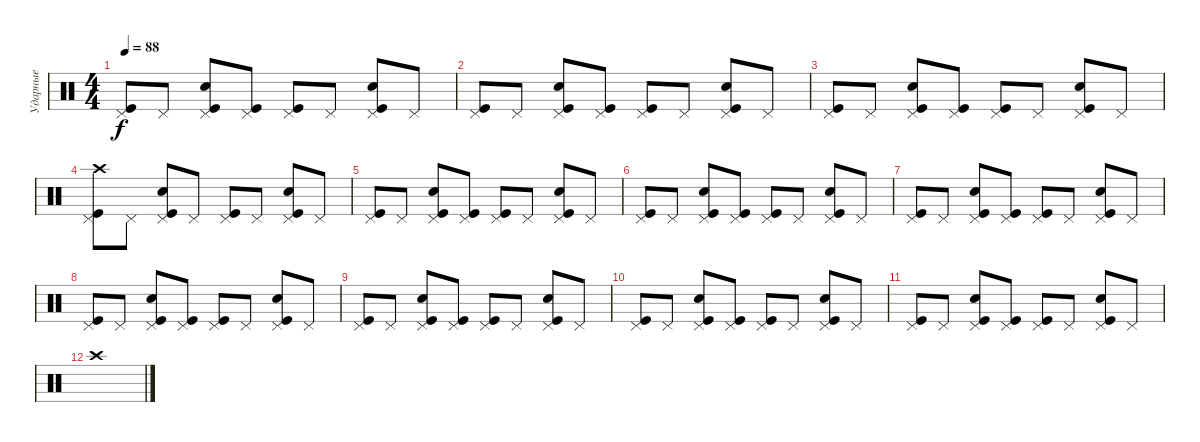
\track ("Ударные" "Ударные") {instrument percussion}
\staff {score}
\articulation defaults
\ts (4 4)
\tempo 88
\clef neutral
\ks c
("Pedal Hi-Hat (hit)" "Kick (hit)").8{dy f} "Pedal Hi-Hat (hit)".8 ("Pedal Hi-Hat (hit)" "Kick (hit)" "Snare (hit) 2").8 ("Pedal Hi-Hat (hit)" "Kick (hit)").8 ("Pedal Hi-Hat (hit)" "Kick (hit)").8 "Pedal Hi-Hat (hit)".8 ("Pedal Hi-Hat (hit)" "Kick (hit)" "Snare (hit) 2").8 "Pedal Hi-Hat (hit)".8 |
("Pedal Hi-Hat (hit)" "Kick (hit)").8 "Pedal Hi-Hat (hit)".8 ("Pedal Hi-Hat (hit)" "Kick (hit)" "Snare (hit) 2").8 ("Pedal Hi-Hat (hit)" "Kick (hit)").8 ("Pedal Hi-Hat (hit)" "Kick (hit)").8 "Pedal Hi-Hat (hit)".8 ("Pedal Hi-Hat (hit)" "Kick (hit)" "Snare (hit) 2").8 "Pedal Hi-Hat (hit)".8 |
("Pedal Hi-Hat (hit)" "Kick (hit)").8 "Pedal Hi-Hat (hit)".8 ("Pedal Hi-Hat (hit)" "Kick (hit)" "Snare (hit) 2").8 ("Pedal Hi-Hat (hit)" "Kick (hit)").8 ("Pedal Hi-Hat (hit)" "Kick (hit)").8 "Pedal Hi-Hat (hit)".8 ("Pedal Hi-Hat (hit)" "Kick (hit)" "Snare (hit) 2").8 "Pedal Hi-Hat (hit)".8 |
("Pedal Hi-Hat (hit)" "Kick (hit)" "Crash high (hit)").8 "Pedal Hi-Hat (hit)".8 ("Pedal Hi-Hat (hit)" "Kick (hit)" "Snare (hit) 2").8 "Pedal Hi-Hat (hit)".8 ("Pedal Hi-Hat (hit)" "Kick (hit)").8 "Pedal Hi-Hat (hit)".8 ("Pedal Hi-Hat (hit)" "Kick (hit)" "Snare (hit) 2").8 "Pedal Hi-Hat (hit)".8 |
("Pedal Hi-Hat (hit)" "Kick (hit)").8 "Pedal Hi-Hat (hit)".8 ("Pedal Hi-Hat (hit)" "Kick (hit)" "Snare (hit) 2").8 ("Pedal Hi-Hat (hit)" "Kick (hit)").8 ("Pedal Hi-Hat (hit)" "Kick (hit)").8 "Pedal Hi-Hat (hit)".8 ("Pedal Hi-Hat (hit)" "Kick (hit)" "Snare (hit) 2").8 "Pedal Hi-Hat (hit)".8 |
("Pedal Hi-Hat (hit)" "Kick (hit)").8 "Pedal Hi-Hat (hit)".8 ("Pedal Hi-Hat (hit)" "Kick (hit)" "Snare (hit) 2").8 ("Pedal Hi-Hat (hit)" "Kick (hit)").8 ("Pedal Hi-Hat (hit)" "Kick (hit)").8 "Pedal Hi-Hat (hit)".8 ("Pedal Hi-Hat (hit)" "Kick (hit)" "Snare (hit) 2").8 "Pedal Hi-Hat (hit)".8 |
("Pedal Hi-Hat (hit)" "Kick (hit)").8 "Pedal Hi-Hat (hit)".8 ("Pedal Hi-Hat (hit)" "Kick (hit)" "Snare (hit) 2").8 ("Pedal Hi-Hat (hit)" "Kick (hit)").8 ("Pedal Hi-Hat (hit)" "Kick (hit)").8 "Pedal Hi-Hat (hit)".8 ("Pedal Hi-Hat (hit)" "Kick (hit)" "Snare (hit) 2").8 "Pedal Hi-Hat (hit)".8 |
("Pedal Hi-Hat (hit)" "Kick (hit)").8 "Pedal Hi-Hat (hit)".8 ("Pedal Hi-Hat (hit)" "Kick (hit)" "Snare (hit) 2").8 ("Pedal Hi-Hat (hit)" "Kick (hit)").8 ("Pedal Hi-Hat (hit)" "Kick (hit)").8 "Pedal Hi-Hat (hit)".8 ("Pedal Hi-Hat (hit)" "Kick (hit)" "Snare (hit) 2").8 "Pedal Hi-Hat (hit)".8 |
("Pedal Hi-Hat (hit)" "Kick (hit)").8 "Pedal Hi-Hat (hit)".8 ("Pedal Hi-Hat (hit)" "Kick (hit)" "Snare (hit) 2").8 ("Pedal Hi-Hat (hit)" "Kick (hit)").8 ("Pedal Hi-Hat (hit)" "Kick (hit)").8 "Pedal Hi-Hat (hit)".8 ("Pedal Hi-Hat (hit)" "Kick (hit)" "Snare (hit) 2").8 "Pedal Hi-Hat (hit)".8 |
("Pedal Hi-Hat (hit)" "Kick (hit)").8 "Pedal Hi-Hat (hit)".8 ("Pedal Hi-Hat (hit)" "Kick (hit)" "Snare (hit) 2").8 ("Pedal Hi-Hat (hit)" "Kick (hit)").8 ("Pedal Hi-Hat (hit)" "Kick (hit)").8 "Pedal Hi-Hat (hit)".8 ("Pedal Hi-Hat (hit)" "Kick (hit)" "Snare (hit) 2").8 "Pedal Hi-Hat (hit)".8 |
("Pedal Hi-Hat (hit)" "Kick (hit)").8 "Pedal Hi-Hat (hit)".8 ("Pedal Hi-Hat (hit)" "Kick (hit)" "Snare (hit) 2").8 ("Pedal Hi-Hat (hit)" "Kick (hit)").8 ("Pedal Hi-Hat (hit)" "Kick (hit)").8 "Pedal Hi-Hat (hit)".8 ("Pedal Hi-Hat (hit)" "Kick (hit)" "Snare (hit) 2").8 "Pedal Hi-Hat (hit)".8 |
"Crash high (hit)".1
